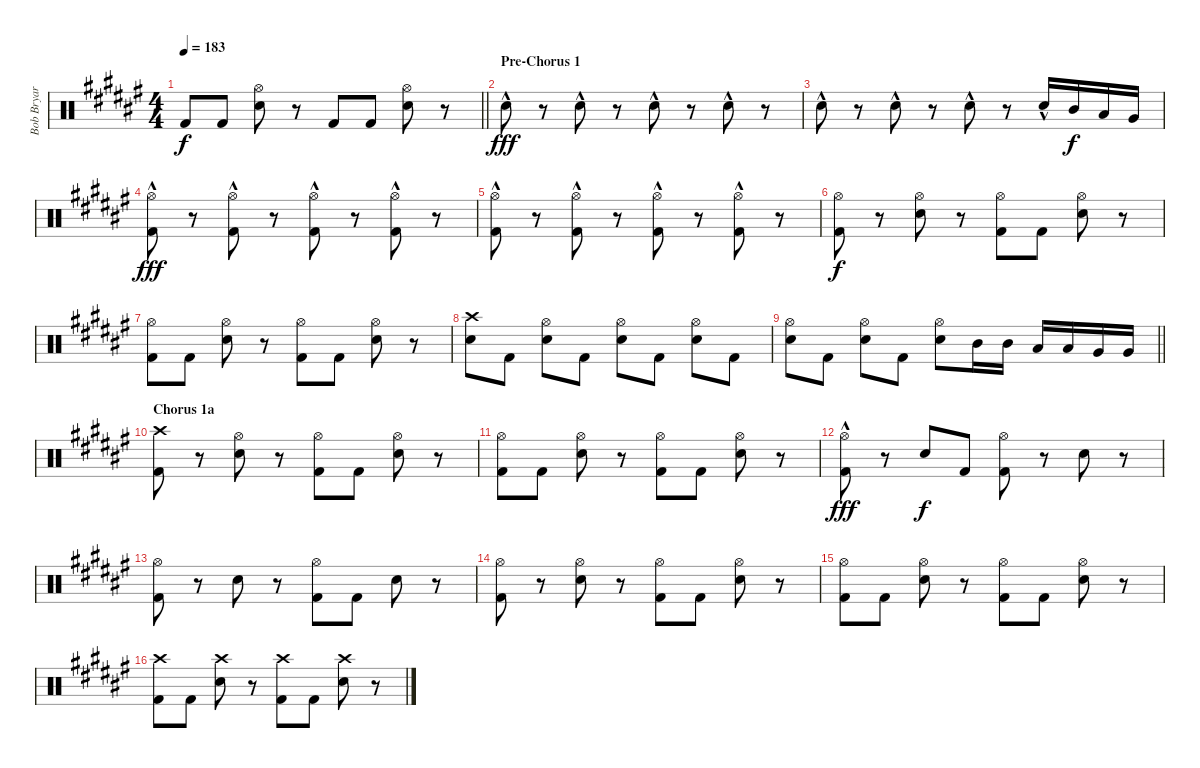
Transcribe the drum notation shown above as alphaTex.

\track ("Bob Bryar" "Bob Bryar") {instrument percussion}
\staff {score}
\articulation defaults
\ts (4 4)
\tempo 183
\clef neutral
\barLineRight lightlight
\ks d#minor "Kick (hit) 2".8{dy f} "Kick (hit) 2".8
("Hi-Hat (open)" "Electric Snare (hit)").8 r.8 "Kick (hit) 2".8 "Kick (hit) 2".8 ("Hi-Hat (open)" "Electric Snare (hit)").8 r.8 |
\section ("" "Pre-Chorus 1")
"Electric Snare (hit)"{hac}.8{dy fff} r.8 "Electric Snare (hit)"{hac}.8 r.8 "Electric Snare (hit)"{hac}.8 r.8 "Electric Snare (hit)"{hac}.8 r.8 |
"Electric Snare (hit)"{hac}.8 r.8 "Electric Snare (hit)"{hac}.8 r.8 "Electric Snare (hit)"{hac}.8 r.8 "Electric Snare (hit)"{hac}.16 "Mid Tom (hit)".16{dy f} "Low Tom (hit)".16 "Very Low Tom (hit)".16 |
("Hi-Hat (open)" "Kick (hit) 2"{hac}).8{dy fff} r.8 ("Hi-Hat (open)" "Kick (hit) 2"{hac}).8 r.8 ("Hi-Hat (open)" "Kick (hit) 2"{hac}).8 r.8 ("Hi-Hat (open)" "Kick (hit) 2"{hac}).8 r.8 |
("Hi-Hat (open)" "Kick (hit) 2"{hac}).8 r.8 ("Hi-Hat (open)" "Kick (hit) 2"{hac}).8 r.8 ("Hi-Hat (open)" "Kick (hit) 2"{hac}).8 r.8 ("Hi-Hat (open)" "Kick (hit) 2"{hac}).8 r.8 |
("Hi-Hat (open)" "Kick (hit) 2").8{dy f} r.8 ("Hi-Hat (open)" "Electric Snare (hit)").8 r.8 ("Hi-Hat (open)" "Kick (hit) 2").8 "Kick (hit) 2".8 ("Hi-Hat (open)" "Electric Snare (hit)").8 r.8 |
("Hi-Hat (open)" "Kick (hit) 2").8 "Kick (hit) 2".8 ("Hi-Hat (open)" "Electric Snare (hit)").8 r.8 ("Hi-Hat (open)" "Kick (hit) 2").8 "Kick (hit) 2".8 ("Hi-Hat (open)" "Electric Snare (hit)").8 r.8 |
("Crash high (hit)" "Electric Snare (hit)").8 "Kick (hit) 2".8 ("Hi-Hat (open)" "Electric Snare (hit)").8 "Kick (hit) 2".8 ("Hi-Hat (open)" "Electric Snare (hit)").8 "Kick (hit) 2".8 ("Hi-Hat (open)" "Electric Snare (hit)").8 "Kick (hit) 2".8 |
\barLineRight lightlight
("Hi-Hat (open)" "Electric Snare (hit)").8 "Kick (hit) 2".8 ("Hi-Hat (open)" "Electric Snare (hit)").8 "Kick (hit) 2".8 ("Hi-Hat (open)" "Electric Snare (hit)").8 "Mid Tom (hit)".16 "Mid Tom (hit)".16 "Low Tom (hit)".16 "Low Tom (hit)".16 "Very Low Tom (hit)".16 "Very Low Tom (hit)".16 |
\section ("" "Chorus 1a")
("Crash high (hit)" "Kick (hit) 2").8 r.8 ("Hi-Hat (open)" "Electric Snare (hit)").8 r.8 ("Hi-Hat (open)" "Kick (hit) 2").8 "Kick (hit) 2".8 ("Hi-Hat (open)" "Electric Snare (hit)").8 r.8 |
("Hi-Hat (open)" "Kick (hit) 2").8 "Kick (hit) 2".8 ("Hi-Hat (open)" "Electric Snare (hit)").8 r.8 ("Hi-Hat (open)" "Kick (hit) 2").8 "Kick (hit) 2".8 ("Hi-Hat (open)" "Electric Snare (hit)").8 r.8 |
("Hi-Hat (open)" "Kick (hit) 2"{hac}).8{dy fff} r.8 "Electric Snare (hit)".8{dy f} "Kick (hit) 2".8 ("Hi-Hat (open)" "Kick (hit) 2").8 r.8 "Electric Snare (hit)".8 r.8 |
("Hi-Hat (open)" "Kick (hit) 2").8 r.8 "Electric Snare (hit)".8 r.8 ("Hi-Hat (open)" "Kick (hit) 2").8 "Kick (hit) 2".8 "Electric Snare (hit)".8 r.8 |
("Hi-Hat (open)" "Kick (hit) 2").8 r.8 ("Hi-Hat (open)" "Electric Snare (hit)").8 r.8 ("Hi-Hat (open)" "Kick (hit) 2").8 "Kick (hit) 2".8 ("Hi-Hat (open)" "Electric Snare (hit)").8 r.8 |
("Hi-Hat (open)" "Kick (hit) 2").8 "Kick (hit) 2".8 ("Hi-Hat (open)" "Electric Snare (hit)").8 r.8 ("Hi-Hat (open)" "Kick (hit) 2").8 "Kick (hit) 2".8 ("Hi-Hat (open)" "Electric Snare (hit)").8 r.8 |
("Crash high (hit)" "Kick (hit) 2").8 "Kick (hit) 2".8 ("Crash high (hit)" "Electric Snare (hit)").8 r.8 ("Crash high (hit)" "Kick (hit) 2").8 "Kick (hit) 2".8 ("Crash high (hit)" "Electric Snare (hit)").8 r.8
